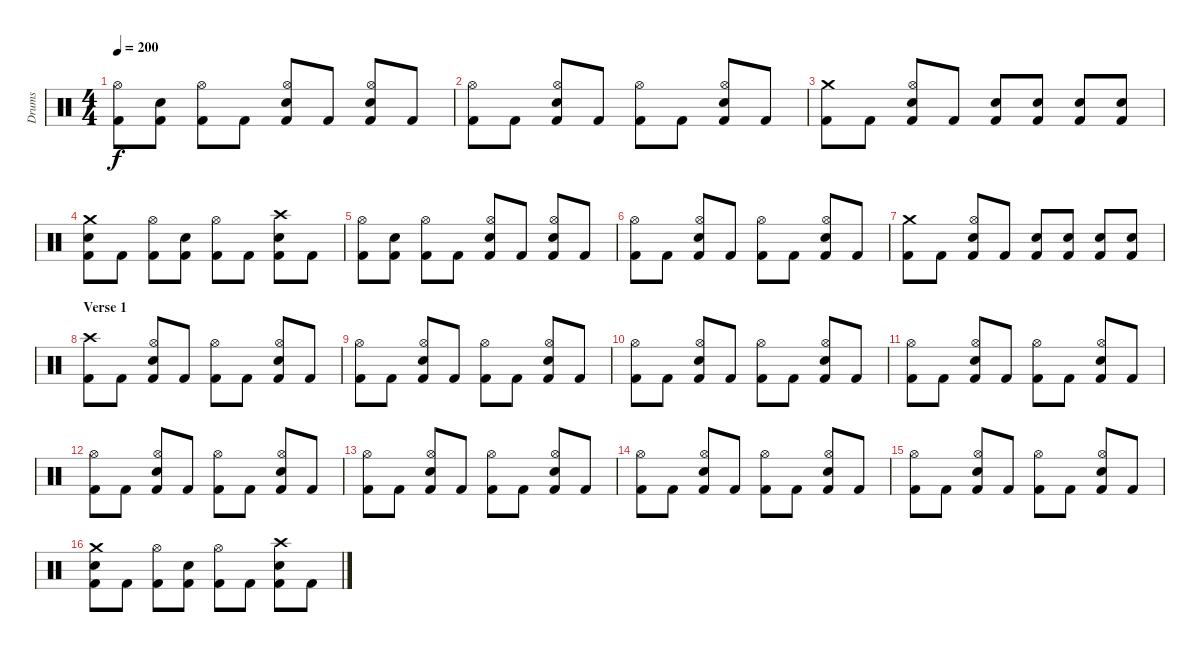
\track ("Drums" "Drums") {instrument percussion}
\staff {score}
\articulation defaults
\ts (4 4)
\tempo 200
\clef neutral
\ks c
("Kick (hit) 2" "Hi-Hat (open)").8{dy f} ("Kick (hit) 2" "Snare (hit) 2").8 ("Kick (hit) 2" "Hi-Hat (open)").8 "Kick (hit) 2".8 ("Kick (hit) 2" "Snare (hit) 2" "Hi-Hat (open)").8 "Kick (hit) 2".8 ("Kick (hit) 2" "Snare (hit) 2" "Hi-Hat (open)").8 "Kick (hit) 2".8 |
("Kick (hit) 2" "Hi-Hat (open)").8 "Kick (hit) 2".8 ("Kick (hit) 2" "Snare (hit) 2" "Hi-Hat (open)").8 "Kick (hit) 2".8 ("Kick (hit) 2" "Hi-Hat (open)").8 "Kick (hit) 2".8 ("Kick (hit) 2" "Snare (hit) 2" "Hi-Hat (open)").8 "Kick (hit) 2".8 |
("Kick (hit) 2" "Crash medium (hit)").8 "Kick (hit) 2".8 ("Kick (hit) 2" "Snare (hit) 2" "Hi-Hat (open)").8 "Kick (hit) 2".8 ("Kick (hit) 2" "Snare (hit) 2").8 ("Kick (hit) 2" "Snare (hit) 2").8 ("Kick (hit) 2" "Snare (hit) 2").8 ("Kick (hit) 2" "Snare (hit) 2").8 |
("Kick (hit) 2" "Snare (hit) 2" "Crash medium (hit)").8 "Kick (hit) 2".8 ("Kick (hit) 2" "Hi-Hat (open)").8 ("Kick (hit) 2" "Snare (hit) 2").8 ("Kick (hit) 2" "Hi-Hat (open)").8 "Kick (hit) 2".8 ("Kick (hit) 2" "Snare (hit) 2" "Crash high (hit)").8 "Kick (hit) 2".8 |
("Kick (hit) 2" "Hi-Hat (open)").8 ("Kick (hit) 2" "Snare (hit) 2").8 ("Kick (hit) 2" "Hi-Hat (open)").8 "Kick (hit) 2".8 ("Kick (hit) 2" "Snare (hit) 2" "Hi-Hat (open)").8 "Kick (hit) 2".8 ("Kick (hit) 2" "Snare (hit) 2" "Hi-Hat (open)").8 "Kick (hit) 2".8 |
("Kick (hit) 2" "Hi-Hat (open)").8 "Kick (hit) 2".8 ("Kick (hit) 2" "Snare (hit) 2" "Hi-Hat (open)").8 "Kick (hit) 2".8 ("Kick (hit) 2" "Hi-Hat (open)").8 "Kick (hit) 2".8 ("Kick (hit) 2" "Snare (hit) 2" "Hi-Hat (open)").8 "Kick (hit) 2".8 |
("Kick (hit) 2" "Crash medium (hit)").8 "Kick (hit) 2".8 ("Kick (hit) 2" "Snare (hit) 2" "Hi-Hat (open)").8 "Kick (hit) 2".8 ("Kick (hit) 2" "Snare (hit) 2").8 ("Kick (hit) 2" "Snare (hit) 2").8 ("Kick (hit) 2" "Snare (hit) 2").8 ("Kick (hit) 2" "Snare (hit) 2").8 |
\section ("" "Verse 1")
("Kick (hit) 2" "Crash high (hit)").8 "Kick (hit) 2".8 ("Kick (hit) 2" "Snare (hit) 2" "Hi-Hat (open)").8 "Kick (hit) 2".8 ("Kick (hit) 2" "Hi-Hat (open)").8 "Kick (hit) 2".8 ("Kick (hit) 2" "Snare (hit) 2" "Hi-Hat (open)").8 "Kick (hit) 2".8 |
("Kick (hit) 2" "Hi-Hat (open)").8 "Kick (hit) 2".8 ("Kick (hit) 2" "Snare (hit) 2" "Hi-Hat (open)").8 "Kick (hit) 2".8 ("Kick (hit) 2" "Hi-Hat (open)").8 "Kick (hit) 2".8 ("Kick (hit) 2" "Snare (hit) 2" "Hi-Hat (open)").8 "Kick (hit) 2".8 |
("Kick (hit) 2" "Hi-Hat (open)").8 "Kick (hit) 2".8 ("Kick (hit) 2" "Snare (hit) 2" "Hi-Hat (open)").8 "Kick (hit) 2".8 ("Kick (hit) 2" "Hi-Hat (open)").8 "Kick (hit) 2".8 ("Kick (hit) 2" "Snare (hit) 2" "Hi-Hat (open)").8 "Kick (hit) 2".8 |
("Kick (hit) 2" "Hi-Hat (open)").8 "Kick (hit) 2".8 ("Kick (hit) 2" "Snare (hit) 2" "Hi-Hat (open)").8 "Kick (hit) 2".8 ("Kick (hit) 2" "Hi-Hat (open)").8 "Kick (hit) 2".8 ("Kick (hit) 2" "Snare (hit) 2" "Hi-Hat (open)").8 "Kick (hit) 2".8 |
("Kick (hit) 2" "Hi-Hat (open)").8 "Kick (hit) 2".8 ("Kick (hit) 2" "Snare (hit) 2" "Hi-Hat (open)").8 "Kick (hit) 2".8 ("Kick (hit) 2" "Hi-Hat (open)").8 "Kick (hit) 2".8 ("Kick (hit) 2" "Snare (hit) 2" "Hi-Hat (open)").8 "Kick (hit) 2".8 |
("Kick (hit) 2" "Hi-Hat (open)").8 "Kick (hit) 2".8 ("Kick (hit) 2" "Snare (hit) 2" "Hi-Hat (open)").8 "Kick (hit) 2".8 ("Kick (hit) 2" "Hi-Hat (open)").8 "Kick (hit) 2".8 ("Kick (hit) 2" "Snare (hit) 2" "Hi-Hat (open)").8 "Kick (hit) 2".8 |
("Kick (hit) 2" "Hi-Hat (open)").8 "Kick (hit) 2".8 ("Kick (hit) 2" "Snare (hit) 2" "Hi-Hat (open)").8 "Kick (hit) 2".8 ("Kick (hit) 2" "Hi-Hat (open)").8 "Kick (hit) 2".8 ("Kick (hit) 2" "Snare (hit) 2" "Hi-Hat (open)").8 "Kick (hit) 2".8 |
("Kick (hit) 2" "Hi-Hat (open)").8 "Kick (hit) 2".8 ("Kick (hit) 2" "Snare (hit) 2" "Hi-Hat (open)").8 "Kick (hit) 2".8 ("Kick (hit) 2" "Hi-Hat (open)").8 "Kick (hit) 2".8 ("Kick (hit) 2" "Snare (hit) 2" "Hi-Hat (open)").8 "Kick (hit) 2".8 |
("Kick (hit) 2" "Snare (hit) 2" "Crash medium (hit)").8 "Kick (hit) 2".8 ("Kick (hit) 2" "Hi-Hat (open)").8 ("Kick (hit) 2" "Snare (hit) 2").8 ("Kick (hit) 2" "Hi-Hat (open)").8 "Kick (hit) 2".8 ("Kick (hit) 2" "Snare (hit) 2" "Crash high (hit)").8 "Kick (hit) 2".8
